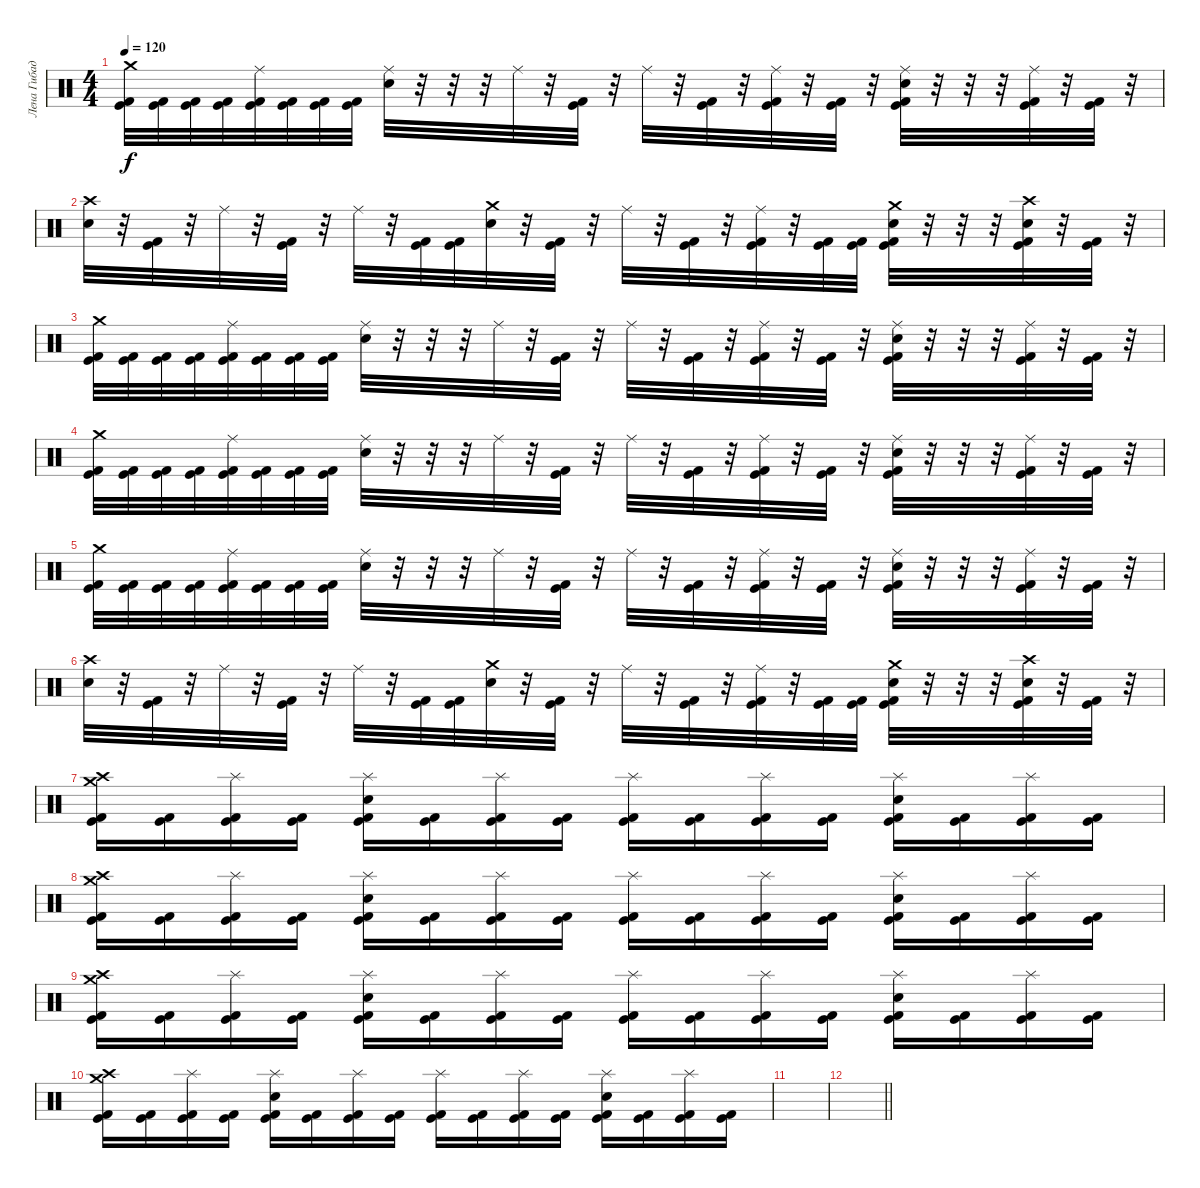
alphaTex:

\track ("Лена Гибадулина" "Лена Гибад") {instrument percussion}
\staff {score}
\articulation defaults
\ts (4 4)
\tempo 120
\clef neutral
\ks c
("Crash medium (hit)" "Kick (hit)" "Kick (hit) 2").32{dy f} ("Kick (hit)" "Kick (hit) 2").32 ("Kick (hit)" "Kick (hit) 2").32 ("Kick (hit)" "Kick (hit) 2").32 ("Ride (middle)" "Kick (hit)" "Kick (hit) 2").32 ("Kick (hit)" "Kick (hit) 2").32 ("Kick (hit)" "Kick (hit) 2").32 ("Kick (hit)" "Kick (hit) 2").32 ("Ride (middle)" "Electric Snare (hit)").32 r.32 r.32 r.32 "Ride (middle)".32 r.32 ("Kick (hit)" "Kick (hit) 2").32 r.32 "Ride (middle)".32 r.32 ("Kick (hit)" "Kick (hit) 2").32 r.32 ("Ride (middle)" "Kick (hit)" "Kick (hit) 2").32 r.32 ("Kick (hit)" "Kick (hit) 2").32 r.32 ("Ride (middle)" "Electric Snare (hit)" "Kick (hit)" "Kick (hit) 2").32 r.32 r.32 r.32 ("Ride (middle)" "Kick (hit)" "Kick (hit) 2").32 r.32 ("Kick (hit) 2" "Kick (hit)").32 r.32 |
("Crash high (hit)" "Electric Snare (hit)").32 r.32 ("Kick (hit)" "Kick (hit) 2").32 r.32 "Ride (middle)".32 r.32 ("Kick (hit)" "Kick (hit) 2").32 r.32 "Ride (middle)".32 r.32 ("Kick (hit)" "Kick (hit) 2").32 ("Kick (hit)" "Kick (hit) 2").32 ("Crash medium (hit)" "Electric Snare (hit)").32 r.32 ("Kick (hit)" "Kick (hit) 2").32 r.32 "Ride (middle)".32 r.32 ("Kick (hit)" "Kick (hit) 2").32 r.32 ("Ride (middle)" "Kick (hit)" "Kick (hit) 2").32 r.32 ("Kick (hit)" "Kick (hit) 2").32 ("Kick (hit)" "Kick (hit) 2").32 ("Crash medium (hit)" "Electric Snare (hit)" "Kick (hit)" "Kick (hit) 2").32 r.32 r.32 r.32 ("Crash high (hit)" "Electric Snare (hit)" "Kick (hit)" "Kick (hit) 2").32 r.32 ("Kick (hit) 2" "Kick (hit)").32 r.32 |
("Crash medium (hit)" "Kick (hit)" "Kick (hit) 2").32 ("Kick (hit)" "Kick (hit) 2").32 ("Kick (hit)" "Kick (hit) 2").32 ("Kick (hit)" "Kick (hit) 2").32 ("Ride (middle)" "Kick (hit)" "Kick (hit) 2").32 ("Kick (hit)" "Kick (hit) 2").32 ("Kick (hit)" "Kick (hit) 2").32 ("Kick (hit)" "Kick (hit) 2").32 ("Ride (middle)" "Electric Snare (hit)").32 r.32 r.32 r.32 "Ride (middle)".32 r.32 ("Kick (hit)" "Kick (hit) 2").32 r.32 "Ride (middle)".32 r.32 ("Kick (hit)" "Kick (hit) 2").32 r.32 ("Ride (middle)" "Kick (hit)" "Kick (hit) 2").32 r.32 ("Kick (hit)" "Kick (hit) 2").32 r.32 ("Ride (middle)" "Electric Snare (hit)" "Kick (hit)" "Kick (hit) 2").32 r.32 r.32 r.32 ("Ride (middle)" "Kick (hit)" "Kick (hit) 2").32 r.32 ("Kick (hit) 2" "Kick (hit)").32 r.32 |
("Crash medium (hit)" "Kick (hit)" "Kick (hit) 2").32 ("Kick (hit)" "Kick (hit) 2").32 ("Kick (hit)" "Kick (hit) 2").32 ("Kick (hit)" "Kick (hit) 2").32 ("Ride (middle)" "Kick (hit)" "Kick (hit) 2").32 ("Kick (hit)" "Kick (hit) 2").32 ("Kick (hit)" "Kick (hit) 2").32 ("Kick (hit)" "Kick (hit) 2").32 ("Ride (middle)" "Electric Snare (hit)").32 r.32 r.32 r.32 "Ride (middle)".32 r.32 ("Kick (hit)" "Kick (hit) 2").32 r.32 "Ride (middle)".32 r.32 ("Kick (hit)" "Kick (hit) 2").32 r.32 ("Ride (middle)" "Kick (hit)" "Kick (hit) 2").32 r.32 ("Kick (hit)" "Kick (hit) 2").32 r.32 ("Ride (middle)" "Electric Snare (hit)" "Kick (hit)" "Kick (hit) 2").32 r.32 r.32 r.32 ("Ride (middle)" "Kick (hit)" "Kick (hit) 2").32 r.32 ("Kick (hit) 2" "Kick (hit)").32 r.32 |
("Crash medium (hit)" "Kick (hit)" "Kick (hit) 2").32 ("Kick (hit)" "Kick (hit) 2").32 ("Kick (hit)" "Kick (hit) 2").32 ("Kick (hit)" "Kick (hit) 2").32 ("Ride (middle)" "Kick (hit)" "Kick (hit) 2").32 ("Kick (hit)" "Kick (hit) 2").32 ("Kick (hit)" "Kick (hit) 2").32 ("Kick (hit)" "Kick (hit) 2").32 ("Ride (middle)" "Electric Snare (hit)").32 r.32 r.32 r.32 "Ride (middle)".32 r.32 ("Kick (hit)" "Kick (hit) 2").32 r.32 "Ride (middle)".32 r.32 ("Kick (hit)" "Kick (hit) 2").32 r.32 ("Ride (middle)" "Kick (hit)" "Kick (hit) 2").32 r.32 ("Kick (hit)" "Kick (hit) 2").32 r.32 ("Ride (middle)" "Electric Snare (hit)" "Kick (hit)" "Kick (hit) 2").32 r.32 r.32 r.32 ("Ride (middle)" "Kick (hit)" "Kick (hit) 2").32 r.32 ("Kick (hit) 2" "Kick (hit)").32 r.32 |
("Crash high (hit)" "Electric Snare (hit)").32 r.32 ("Kick (hit)" "Kick (hit) 2").32 r.32 "Ride (middle)".32 r.32 ("Kick (hit)" "Kick (hit) 2").32 r.32 "Ride (middle)".32 r.32 ("Kick (hit)" "Kick (hit) 2").32 ("Kick (hit)" "Kick (hit) 2").32 ("Crash medium (hit)" "Electric Snare (hit)").32 r.32 ("Kick (hit)" "Kick (hit) 2").32 r.32 "Ride (middle)".32 r.32 ("Kick (hit)" "Kick (hit) 2").32 r.32 ("Ride (middle)" "Kick (hit)" "Kick (hit) 2").32 r.32 ("Kick (hit)" "Kick (hit) 2").32 ("Kick (hit)" "Kick (hit) 2").32 ("Crash medium (hit)" "Electric Snare (hit)" "Kick (hit)" "Kick (hit) 2").32 r.32 r.32 r.32 ("Crash high (hit)" "Electric Snare (hit)" "Kick (hit)" "Kick (hit) 2").32 r.32 ("Kick (hit) 2" "Kick (hit)").32 r.32 |
("Crash high (hit)" "Crash medium (hit)" "Kick (hit)" "Kick (hit) 2").16 ("Kick (hit)" "Kick (hit) 2").16 ("Splash (hit)" "Kick (hit)" "Kick (hit) 2").16 ("Kick (hit)" "Kick (hit) 2").16 ("Electric Snare (hit)" "Splash (hit)" "Kick (hit)" "Kick (hit) 2").16 ("Kick (hit)" "Kick (hit) 2").16 ("Splash (hit)" "Kick (hit)" "Kick (hit) 2").16 ("Kick (hit)" "Kick (hit) 2").16 ("Splash (hit)" "Kick (hit)" "Kick (hit) 2").16 ("Kick (hit)" "Kick (hit) 2").16 ("Splash (hit)" "Kick (hit)" "Kick (hit) 2").16 ("Kick (hit)" "Kick (hit) 2").16 ("Electric Snare (hit)" "Splash (hit)" "Kick (hit)" "Kick (hit) 2").16 ("Kick (hit)" "Kick (hit) 2").16 ("Splash (hit)" "Kick (hit)" "Kick (hit) 2").16 ("Kick (hit)" "Kick (hit) 2").16 |
("Crash high (hit)" "Crash medium (hit)" "Kick (hit)" "Kick (hit) 2").16 ("Kick (hit)" "Kick (hit) 2").16 ("Splash (hit)" "Kick (hit)" "Kick (hit) 2").16 ("Kick (hit)" "Kick (hit) 2").16 ("Electric Snare (hit)" "Splash (hit)" "Kick (hit)" "Kick (hit) 2").16 ("Kick (hit)" "Kick (hit) 2").16 ("Splash (hit)" "Kick (hit)" "Kick (hit) 2").16 ("Kick (hit)" "Kick (hit) 2").16 ("Splash (hit)" "Kick (hit)" "Kick (hit) 2").16 ("Kick (hit)" "Kick (hit) 2").16 ("Splash (hit)" "Kick (hit)" "Kick (hit) 2").16 ("Kick (hit)" "Kick (hit) 2").16 ("Electric Snare (hit)" "Splash (hit)" "Kick (hit)" "Kick (hit) 2").16 ("Kick (hit)" "Kick (hit) 2").16 ("Splash (hit)" "Kick (hit)" "Kick (hit) 2").16 ("Kick (hit)" "Kick (hit) 2").16 |
("Crash high (hit)" "Crash medium (hit)" "Kick (hit)" "Kick (hit) 2").16 ("Kick (hit)" "Kick (hit) 2").16 ("Splash (hit)" "Kick (hit)" "Kick (hit) 2").16 ("Kick (hit)" "Kick (hit) 2").16 ("Electric Snare (hit)" "Splash (hit)" "Kick (hit)" "Kick (hit) 2").16 ("Kick (hit)" "Kick (hit) 2").16 ("Splash (hit)" "Kick (hit)" "Kick (hit) 2").16 ("Kick (hit)" "Kick (hit) 2").16 ("Splash (hit)" "Kick (hit)" "Kick (hit) 2").16 ("Kick (hit)" "Kick (hit) 2").16 ("Splash (hit)" "Kick (hit)" "Kick (hit) 2").16 ("Kick (hit)" "Kick (hit) 2").16 ("Electric Snare (hit)" "Splash (hit)" "Kick (hit)" "Kick (hit) 2").16 ("Kick (hit)" "Kick (hit) 2").16 ("Splash (hit)" "Kick (hit)" "Kick (hit) 2").16 ("Kick (hit)" "Kick (hit) 2").16 |
("Crash high (hit)" "Crash medium (hit)" "Kick (hit)" "Kick (hit) 2").16 ("Kick (hit)" "Kick (hit) 2").16 ("Splash (hit)" "Kick (hit)" "Kick (hit) 2").16 ("Kick (hit)" "Kick (hit) 2").16 ("Electric Snare (hit)" "Splash (hit)" "Kick (hit)" "Kick (hit) 2").16 ("Kick (hit)" "Kick (hit) 2").16 ("Splash (hit)" "Kick (hit)" "Kick (hit) 2").16 ("Kick (hit)" "Kick (hit) 2").16 ("Splash (hit)" "Kick (hit)" "Kick (hit) 2").16 ("Kick (hit)" "Kick (hit) 2").16 ("Splash (hit)" "Kick (hit)" "Kick (hit) 2").16 ("Kick (hit)" "Kick (hit) 2").16 ("Electric Snare (hit)" "Splash (hit)" "Kick (hit)" "Kick (hit) 2").16 ("Kick (hit)" "Kick (hit) 2").16 ("Splash (hit)" "Kick (hit)" "Kick (hit) 2").16 ("Kick (hit)" "Kick (hit) 2").16 |
|
\barLineRight lightlight
